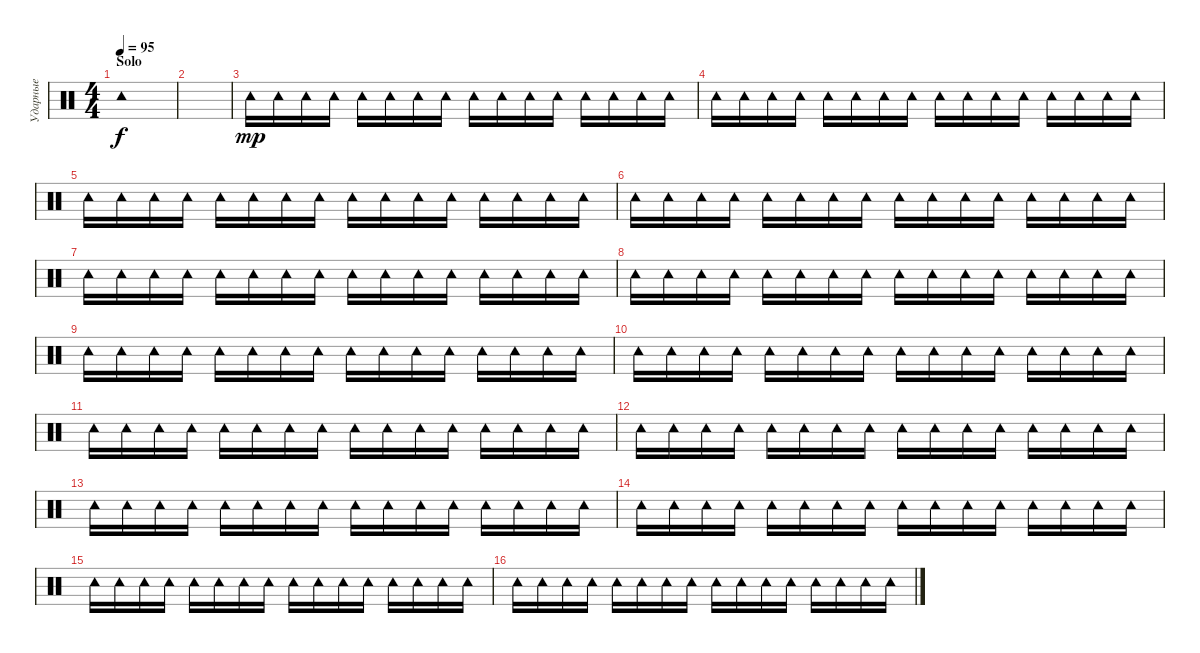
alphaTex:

\track ("Ударные" "Ударные") {instrument percussion}
\staff {score}
\articulation defaults
\ts (4 4)
\section ("" "Solo")
\tempo 95
\clef neutral
\ks c "Tambourine (hit)".1{dy f}
|
|
"Tambourine (hit)".16{dy mp} "Tambourine (hit)".16 "Tambourine (hit)".16 "Tambourine (hit)".16 "Tambourine (hit)".16 "Tambourine (hit)".16 "Tambourine (hit)".16 "Tambourine (hit)".16 "Tambourine (hit)".16 "Tambourine (hit)".16 "Tambourine (hit)".16 "Tambourine (hit)".16 "Tambourine (hit)".16 "Tambourine (hit)".16 "Tambourine (hit)".16 "Tambourine (hit)".16 |
"Tambourine (hit)".16 "Tambourine (hit)".16 "Tambourine (hit)".16 "Tambourine (hit)".16 "Tambourine (hit)".16 "Tambourine (hit)".16 "Tambourine (hit)".16 "Tambourine (hit)".16 "Tambourine (hit)".16 "Tambourine (hit)".16 "Tambourine (hit)".16 "Tambourine (hit)".16 "Tambourine (hit)".16 "Tambourine (hit)".16 "Tambourine (hit)".16 "Tambourine (hit)".16 |
"Tambourine (hit)".16 "Tambourine (hit)".16 "Tambourine (hit)".16 "Tambourine (hit)".16 "Tambourine (hit)".16 "Tambourine (hit)".16 "Tambourine (hit)".16 "Tambourine (hit)".16 "Tambourine (hit)".16 "Tambourine (hit)".16 "Tambourine (hit)".16 "Tambourine (hit)".16 "Tambourine (hit)".16 "Tambourine (hit)".16 "Tambourine (hit)".16 "Tambourine (hit)".16 |
"Tambourine (hit)".16 "Tambourine (hit)".16 "Tambourine (hit)".16 "Tambourine (hit)".16 "Tambourine (hit)".16 "Tambourine (hit)".16 "Tambourine (hit)".16 "Tambourine (hit)".16 "Tambourine (hit)".16 "Tambourine (hit)".16 "Tambourine (hit)".16 "Tambourine (hit)".16 "Tambourine (hit)".16 "Tambourine (hit)".16 "Tambourine (hit)".16 "Tambourine (hit)".16 |
"Tambourine (hit)".16 "Tambourine (hit)".16 "Tambourine (hit)".16 "Tambourine (hit)".16 "Tambourine (hit)".16 "Tambourine (hit)".16 "Tambourine (hit)".16 "Tambourine (hit)".16 "Tambourine (hit)".16 "Tambourine (hit)".16 "Tambourine (hit)".16 "Tambourine (hit)".16 "Tambourine (hit)".16 "Tambourine (hit)".16 "Tambourine (hit)".16 "Tambourine (hit)".16 |
"Tambourine (hit)".16 "Tambourine (hit)".16 "Tambourine (hit)".16 "Tambourine (hit)".16 "Tambourine (hit)".16 "Tambourine (hit)".16 "Tambourine (hit)".16 "Tambourine (hit)".16 "Tambourine (hit)".16 "Tambourine (hit)".16 "Tambourine (hit)".16 "Tambourine (hit)".16 "Tambourine (hit)".16 "Tambourine (hit)".16 "Tambourine (hit)".16 "Tambourine (hit)".16 |
"Tambourine (hit)".16 "Tambourine (hit)".16 "Tambourine (hit)".16 "Tambourine (hit)".16 "Tambourine (hit)".16 "Tambourine (hit)".16 "Tambourine (hit)".16 "Tambourine (hit)".16 "Tambourine (hit)".16 "Tambourine (hit)".16 "Tambourine (hit)".16 "Tambourine (hit)".16 "Tambourine (hit)".16 "Tambourine (hit)".16 "Tambourine (hit)".16 "Tambourine (hit)".16 |
"Tambourine (hit)".16 "Tambourine (hit)".16 "Tambourine (hit)".16 "Tambourine (hit)".16 "Tambourine (hit)".16 "Tambourine (hit)".16 "Tambourine (hit)".16 "Tambourine (hit)".16 "Tambourine (hit)".16 "Tambourine (hit)".16 "Tambourine (hit)".16 "Tambourine (hit)".16 "Tambourine (hit)".16 "Tambourine (hit)".16 "Tambourine (hit)".16 "Tambourine (hit)".16 |
"Tambourine (hit)".16 "Tambourine (hit)".16 "Tambourine (hit)".16 "Tambourine (hit)".16 "Tambourine (hit)".16 "Tambourine (hit)".16 "Tambourine (hit)".16 "Tambourine (hit)".16 "Tambourine (hit)".16 "Tambourine (hit)".16 "Tambourine (hit)".16 "Tambourine (hit)".16 "Tambourine (hit)".16 "Tambourine (hit)".16 "Tambourine (hit)".16 "Tambourine (hit)".16 |
"Tambourine (hit)".16 "Tambourine (hit)".16 "Tambourine (hit)".16 "Tambourine (hit)".16 "Tambourine (hit)".16 "Tambourine (hit)".16 "Tambourine (hit)".16 "Tambourine (hit)".16 "Tambourine (hit)".16 "Tambourine (hit)".16 "Tambourine (hit)".16 "Tambourine (hit)".16 "Tambourine (hit)".16 "Tambourine (hit)".16 "Tambourine (hit)".16 "Tambourine (hit)".16 |
"Tambourine (hit)".16 "Tambourine (hit)".16 "Tambourine (hit)".16 "Tambourine (hit)".16 "Tambourine (hit)".16 "Tambourine (hit)".16 "Tambourine (hit)".16 "Tambourine (hit)".16 "Tambourine (hit)".16 "Tambourine (hit)".16 "Tambourine (hit)".16 "Tambourine (hit)".16 "Tambourine (hit)".16 "Tambourine (hit)".16 "Tambourine (hit)".16 "Tambourine (hit)".16 |
"Tambourine (hit)".16 "Tambourine (hit)".16 "Tambourine (hit)".16 "Tambourine (hit)".16 "Tambourine (hit)".16 "Tambourine (hit)".16 "Tambourine (hit)".16 "Tambourine (hit)".16 "Tambourine (hit)".16 "Tambourine (hit)".16 "Tambourine (hit)".16 "Tambourine (hit)".16 "Tambourine (hit)".16 "Tambourine (hit)".16 "Tambourine (hit)".16 "Tambourine (hit)".16 |
"Tambourine (hit)".16 "Tambourine (hit)".16 "Tambourine (hit)".16 "Tambourine (hit)".16 "Tambourine (hit)".16 "Tambourine (hit)".16 "Tambourine (hit)".16 "Tambourine (hit)".16 "Tambourine (hit)".16 "Tambourine (hit)".16 "Tambourine (hit)".16 "Tambourine (hit)".16 "Tambourine (hit)".16 "Tambourine (hit)".16 "Tambourine (hit)".16 "Tambourine (hit)".16 |
"Tambourine (hit)".16 "Tambourine (hit)".16 "Tambourine (hit)".16 "Tambourine (hit)".16 "Tambourine (hit)".16 "Tambourine (hit)".16 "Tambourine (hit)".16 "Tambourine (hit)".16 "Tambourine (hit)".16 "Tambourine (hit)".16 "Tambourine (hit)".16 "Tambourine (hit)".16 "Tambourine (hit)".16 "Tambourine (hit)".16 "Tambourine (hit)".16 "Tambourine (hit)".16
